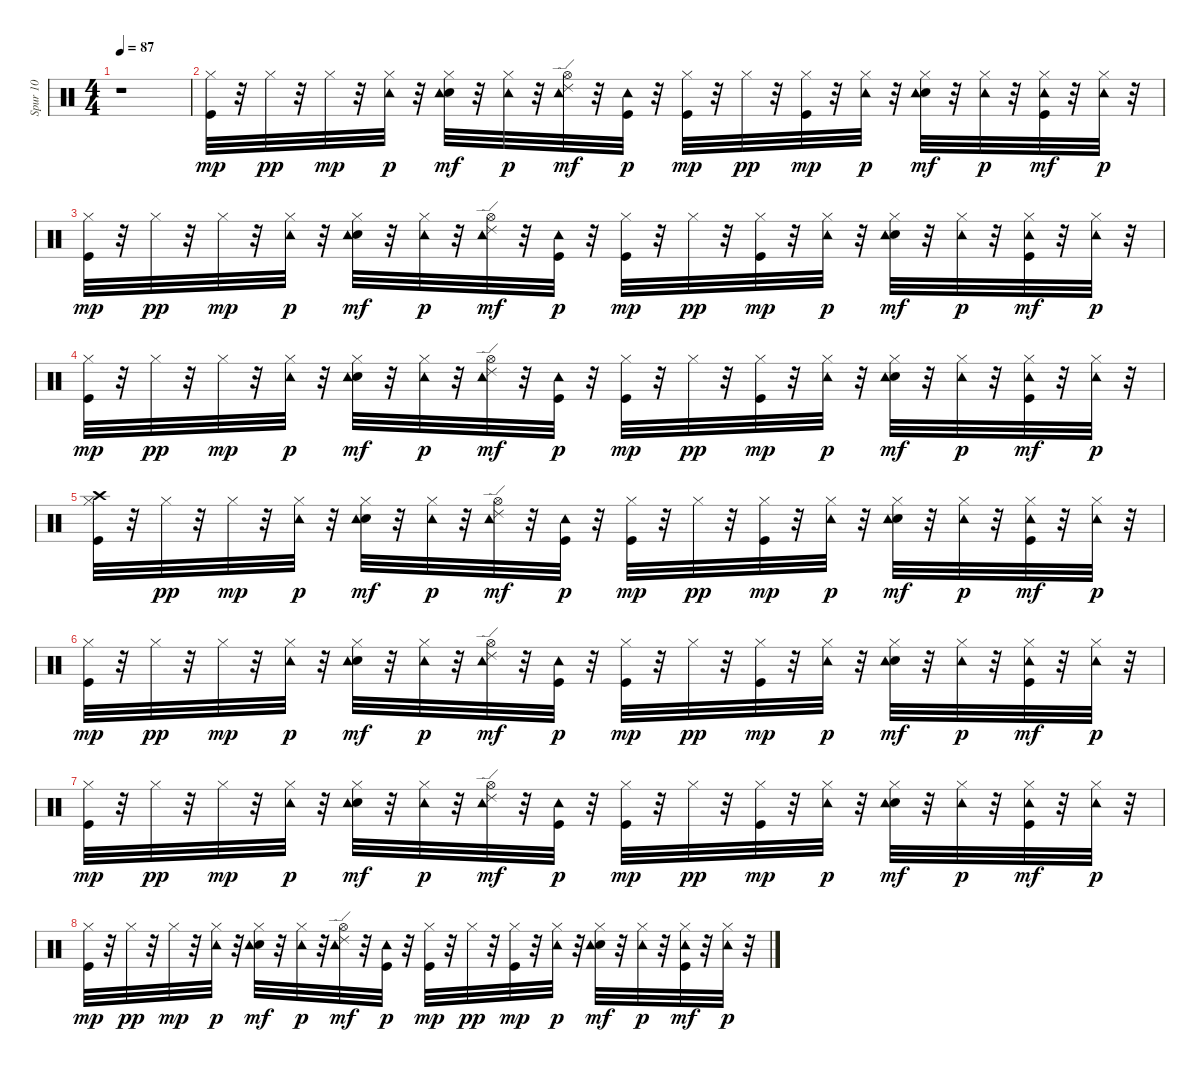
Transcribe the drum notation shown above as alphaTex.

\track ("Spur 10" "Spur 10") {instrument percussion}
\staff {score}
\articulation defaults
\ts (4 4)
\tempo 87
\clef neutral
\ks c
r.1{dy mp} |
("Kick (hit)" "Hi-Hat (closed)").32 r.32 "Hi-Hat (closed)".32{dy pp} r.32 "Hi-Hat (closed)".32{dy mp} r.32 ("Hi-Hat (closed)" "Tambourine (hit)").32{dy p} r.32 ("Electric Snare (hit)" "Hi-Hat (closed)" "Tambourine (hit)").32{dy mf} r.32 ("Hi-Hat (closed)" "Tambourine (hit)").32{dy p} r.32 ("Hi-Hat (open)" "Tambourine (hit)" "Ride (edge) 2").32{dy mf} r.32 ("Kick (hit)" "Tambourine (hit)").32{dy p} r.32 ("Kick (hit)" "Hi-Hat (closed)").32{dy mp} r.32 "Hi-Hat (closed)".32{dy pp} r.32 ("Kick (hit)" "Hi-Hat (closed)").32{dy mp} r.32 ("Hi-Hat (closed)" "Tambourine (hit)").32{dy p} r.32 ("Electric Snare (hit)" "Hi-Hat (closed)" "Tambourine (hit)").32{dy mf} r.32 ("Hi-Hat (closed)" "Tambourine (hit)").32{dy p} r.32 ("Kick (hit)" "Hi-Hat (closed)" "Tambourine (hit)").32{dy mf} r.32 ("Hi-Hat (closed)" "Tambourine (hit)").32{dy p} r.32 |
("Kick (hit)" "Hi-Hat (closed)").32{dy mp} r.32 "Hi-Hat (closed)".32{dy pp} r.32 "Hi-Hat (closed)".32{dy mp} r.32 ("Hi-Hat (closed)" "Tambourine (hit)").32{dy p} r.32 ("Electric Snare (hit)" "Hi-Hat (closed)" "Tambourine (hit)").32{dy mf} r.32 ("Hi-Hat (closed)" "Tambourine (hit)").32{dy p} r.32 ("Hi-Hat (open)" "Tambourine (hit)" "Ride (edge) 2").32{dy mf} r.32 ("Kick (hit)" "Tambourine (hit)").32{dy p} r.32 ("Kick (hit)" "Hi-Hat (closed)").32{dy mp} r.32 "Hi-Hat (closed)".32{dy pp} r.32 ("Kick (hit)" "Hi-Hat (closed)").32{dy mp} r.32 ("Hi-Hat (closed)" "Tambourine (hit)").32{dy p} r.32 ("Electric Snare (hit)" "Hi-Hat (closed)" "Tambourine (hit)").32{dy mf} r.32 ("Hi-Hat (closed)" "Tambourine (hit)").32{dy p} r.32 ("Kick (hit)" "Hi-Hat (closed)" "Tambourine (hit)").32{dy mf} r.32 ("Hi-Hat (closed)" "Tambourine (hit)").32{dy p} r.32 |
("Kick (hit)" "Hi-Hat (closed)").32{dy mp} r.32 "Hi-Hat (closed)".32{dy pp} r.32 "Hi-Hat (closed)".32{dy mp} r.32 ("Hi-Hat (closed)" "Tambourine (hit)").32{dy p} r.32 ("Electric Snare (hit)" "Hi-Hat (closed)" "Tambourine (hit)").32{dy mf} r.32 ("Hi-Hat (closed)" "Tambourine (hit)").32{dy p} r.32 ("Hi-Hat (open)" "Tambourine (hit)" "Ride (edge) 2").32{dy mf} r.32 ("Kick (hit)" "Tambourine (hit)").32{dy p} r.32 ("Kick (hit)" "Hi-Hat (closed)").32{dy mp} r.32 "Hi-Hat (closed)".32{dy pp} r.32 ("Kick (hit)" "Hi-Hat (closed)").32{dy mp} r.32 ("Hi-Hat (closed)" "Tambourine (hit)").32{dy p} r.32 ("Electric Snare (hit)" "Hi-Hat (closed)" "Tambourine (hit)").32{dy mf} r.32 ("Hi-Hat (closed)" "Tambourine (hit)").32{dy p} r.32 ("Kick (hit)" "Hi-Hat (closed)" "Tambourine (hit)").32{dy mf} r.32 ("Hi-Hat (closed)" "Tambourine (hit)").32{dy p} r.32 |
("Kick (hit)" "Hi-Hat (closed)" "Crash high (hit)").32 r.32 "Hi-Hat (closed)".32{dy pp} r.32 "Hi-Hat (closed)".32{dy mp} r.32 ("Hi-Hat (closed)" "Tambourine (hit)").32{dy p} r.32 ("Electric Snare (hit)" "Hi-Hat (closed)" "Tambourine (hit)").32{dy mf} r.32 ("Hi-Hat (closed)" "Tambourine (hit)").32{dy p} r.32 ("Hi-Hat (open)" "Tambourine (hit)" "Ride (edge) 2").32{dy mf} r.32 ("Kick (hit)" "Tambourine (hit)").32{dy p} r.32 ("Kick (hit)" "Hi-Hat (closed)").32{dy mp} r.32 "Hi-Hat (closed)".32{dy pp} r.32 ("Kick (hit)" "Hi-Hat (closed)").32{dy mp} r.32 ("Hi-Hat (closed)" "Tambourine (hit)").32{dy p} r.32 ("Electric Snare (hit)" "Hi-Hat (closed)" "Tambourine (hit)").32{dy mf} r.32 ("Hi-Hat (closed)" "Tambourine (hit)").32{dy p} r.32 ("Kick (hit)" "Hi-Hat (closed)" "Tambourine (hit)").32{dy mf} r.32 ("Hi-Hat (closed)" "Tambourine (hit)").32{dy p} r.32 |
("Kick (hit)" "Hi-Hat (closed)").32{dy mp} r.32 "Hi-Hat (closed)".32{dy pp} r.32 "Hi-Hat (closed)".32{dy mp} r.32 ("Hi-Hat (closed)" "Tambourine (hit)").32{dy p} r.32 ("Electric Snare (hit)" "Hi-Hat (closed)" "Tambourine (hit)").32{dy mf} r.32 ("Hi-Hat (closed)" "Tambourine (hit)").32{dy p} r.32 ("Hi-Hat (open)" "Tambourine (hit)" "Ride (edge) 2").32{dy mf} r.32 ("Kick (hit)" "Tambourine (hit)").32{dy p} r.32 ("Kick (hit)" "Hi-Hat (closed)").32{dy mp} r.32 "Hi-Hat (closed)".32{dy pp} r.32 ("Kick (hit)" "Hi-Hat (closed)").32{dy mp} r.32 ("Hi-Hat (closed)" "Tambourine (hit)").32{dy p} r.32 ("Electric Snare (hit)" "Hi-Hat (closed)" "Tambourine (hit)").32{dy mf} r.32 ("Hi-Hat (closed)" "Tambourine (hit)").32{dy p} r.32 ("Kick (hit)" "Hi-Hat (closed)" "Tambourine (hit)").32{dy mf} r.32 ("Hi-Hat (closed)" "Tambourine (hit)").32{dy p} r.32 |
("Kick (hit)" "Hi-Hat (closed)").32{dy mp} r.32 "Hi-Hat (closed)".32{dy pp} r.32 "Hi-Hat (closed)".32{dy mp} r.32 ("Hi-Hat (closed)" "Tambourine (hit)").32{dy p} r.32 ("Electric Snare (hit)" "Hi-Hat (closed)" "Tambourine (hit)").32{dy mf} r.32 ("Hi-Hat (closed)" "Tambourine (hit)").32{dy p} r.32 ("Hi-Hat (open)" "Tambourine (hit)" "Ride (edge) 2").32{dy mf} r.32 ("Kick (hit)" "Tambourine (hit)").32{dy p} r.32 ("Kick (hit)" "Hi-Hat (closed)").32{dy mp} r.32 "Hi-Hat (closed)".32{dy pp} r.32 ("Kick (hit)" "Hi-Hat (closed)").32{dy mp} r.32 ("Hi-Hat (closed)" "Tambourine (hit)").32{dy p} r.32 ("Electric Snare (hit)" "Hi-Hat (closed)" "Tambourine (hit)").32{dy mf} r.32 ("Hi-Hat (closed)" "Tambourine (hit)").32{dy p} r.32 ("Kick (hit)" "Hi-Hat (closed)" "Tambourine (hit)").32{dy mf} r.32 ("Hi-Hat (closed)" "Tambourine (hit)").32{dy p} r.32 |
("Kick (hit)" "Hi-Hat (closed)").32{dy mp} r.32 "Hi-Hat (closed)".32{dy pp} r.32 "Hi-Hat (closed)".32{dy mp} r.32 ("Hi-Hat (closed)" "Tambourine (hit)").32{dy p} r.32 ("Electric Snare (hit)" "Hi-Hat (closed)" "Tambourine (hit)").32{dy mf} r.32 ("Hi-Hat (closed)" "Tambourine (hit)").32{dy p} r.32 ("Hi-Hat (open)" "Tambourine (hit)" "Ride (edge) 2").32{dy mf} r.32 ("Kick (hit)" "Tambourine (hit)").32{dy p} r.32 ("Kick (hit)" "Hi-Hat (closed)").32{dy mp} r.32 "Hi-Hat (closed)".32{dy pp} r.32 ("Kick (hit)" "Hi-Hat (closed)").32{dy mp} r.32 ("Hi-Hat (closed)" "Tambourine (hit)").32{dy p} r.32 ("Electric Snare (hit)" "Hi-Hat (closed)" "Tambourine (hit)").32{dy mf} r.32 ("Hi-Hat (closed)" "Tambourine (hit)").32{dy p} r.32 ("Kick (hit)" "Hi-Hat (closed)" "Tambourine (hit)").32{dy mf} r.32 ("Hi-Hat (closed)" "Tambourine (hit)").32{dy p} r.32
